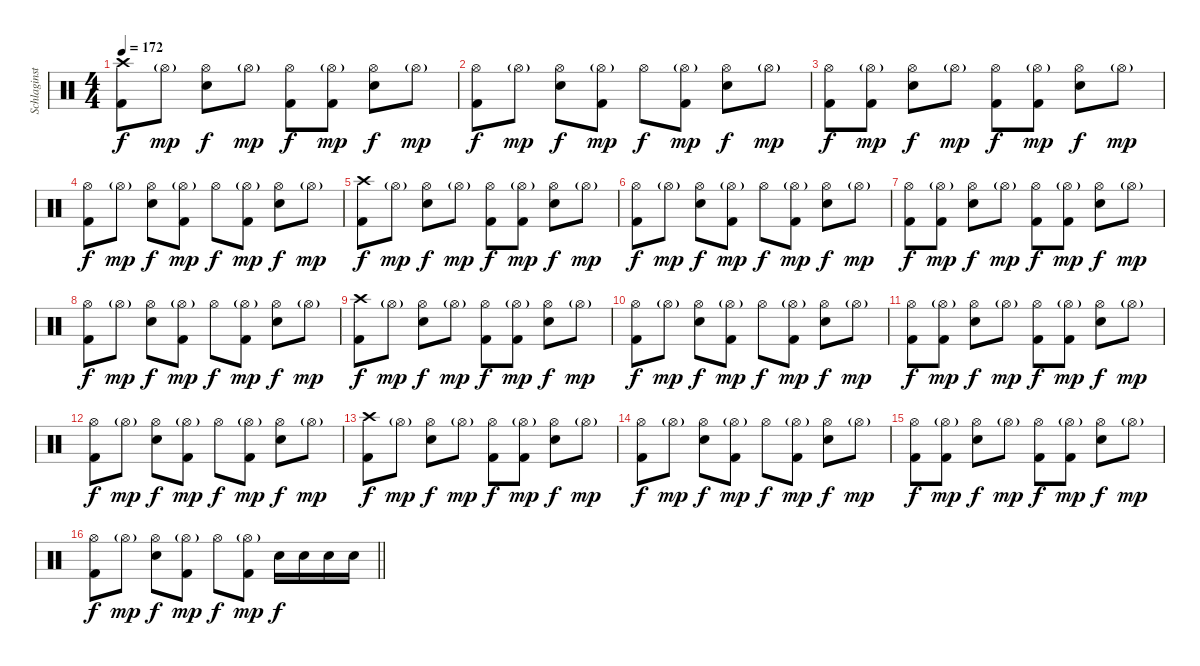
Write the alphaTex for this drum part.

\track ("Schlaginstrumente - Auswahl" "Schlaginst") {instrument percussion}
\staff {score}
\articulation defaults
\ts (4 4)
\tempo 172
\clef neutral
\ks c
("Crash high (hit)" "Kick (hit) 2").8{dy f} "Hi-Hat (open)"{g}.8{dy mp} ("Hi-Hat (open)" "Snare (hit) 2").8{dy f} "Hi-Hat (open)"{g}.8{dy mp} ("Hi-Hat (open)" "Kick (hit) 2").8{dy f} ("Hi-Hat (open)"{g} "Kick (hit) 2").8{dy mp} ("Hi-Hat (open)" "Snare (hit) 2").8{dy f} "Hi-Hat (open)"{g}.8{dy mp} |
("Hi-Hat (open)" "Kick (hit) 2").8{dy f} "Hi-Hat (open)"{g}.8{dy mp} ("Hi-Hat (open)" "Snare (hit) 2").8{dy f} ("Hi-Hat (open)"{g} "Kick (hit) 2").8{dy mp} "Hi-Hat (open)".8{dy f} ("Hi-Hat (open)"{g} "Kick (hit) 2").8{dy mp} ("Hi-Hat (open)" "Snare (hit) 2").8{dy f} "Hi-Hat (open)"{g}.8{dy mp} |
("Hi-Hat (open)" "Kick (hit) 2").8{dy f} ("Hi-Hat (open)"{g} "Kick (hit) 2").8{dy mp} ("Hi-Hat (open)" "Snare (hit) 2").8{dy f} "Hi-Hat (open)"{g}.8{dy mp} ("Hi-Hat (open)" "Kick (hit) 2").8{dy f} ("Hi-Hat (open)"{g} "Kick (hit) 2").8{dy mp} ("Hi-Hat (open)" "Snare (hit) 2").8{dy f} "Hi-Hat (open)"{g}.8{dy mp} |
("Hi-Hat (open)" "Kick (hit) 2").8{dy f} "Hi-Hat (open)"{g}.8{dy mp} ("Hi-Hat (open)" "Snare (hit) 2").8{dy f} ("Hi-Hat (open)"{g} "Kick (hit) 2").8{dy mp} "Hi-Hat (open)".8{dy f} ("Hi-Hat (open)"{g} "Kick (hit) 2").8{dy mp} ("Hi-Hat (open)" "Snare (hit) 2").8{dy f} "Hi-Hat (open)"{g}.8{dy mp} |
("Crash high (hit)" "Kick (hit) 2").8{dy f} "Hi-Hat (open)"{g}.8{dy mp} ("Hi-Hat (open)" "Snare (hit) 2").8{dy f} "Hi-Hat (open)"{g}.8{dy mp} ("Hi-Hat (open)" "Kick (hit) 2").8{dy f} ("Hi-Hat (open)"{g} "Kick (hit) 2").8{dy mp} ("Hi-Hat (open)" "Snare (hit) 2").8{dy f} "Hi-Hat (open)"{g}.8{dy mp} |
("Hi-Hat (open)" "Kick (hit) 2").8{dy f} "Hi-Hat (open)"{g}.8{dy mp} ("Hi-Hat (open)" "Snare (hit) 2").8{dy f} ("Hi-Hat (open)"{g} "Kick (hit) 2").8{dy mp} "Hi-Hat (open)".8{dy f} ("Hi-Hat (open)"{g} "Kick (hit) 2").8{dy mp} ("Hi-Hat (open)" "Snare (hit) 2").8{dy f} "Hi-Hat (open)"{g}.8{dy mp} |
("Hi-Hat (open)" "Kick (hit) 2").8{dy f} ("Hi-Hat (open)"{g} "Kick (hit) 2").8{dy mp} ("Hi-Hat (open)" "Snare (hit) 2").8{dy f} "Hi-Hat (open)"{g}.8{dy mp} ("Hi-Hat (open)" "Kick (hit) 2").8{dy f} ("Hi-Hat (open)"{g} "Kick (hit) 2").8{dy mp} ("Hi-Hat (open)" "Snare (hit) 2").8{dy f} "Hi-Hat (open)"{g}.8{dy mp} |
("Hi-Hat (open)" "Kick (hit) 2").8{dy f} "Hi-Hat (open)"{g}.8{dy mp} ("Hi-Hat (open)" "Snare (hit) 2").8{dy f} ("Hi-Hat (open)"{g} "Kick (hit) 2").8{dy mp} "Hi-Hat (open)".8{dy f} ("Hi-Hat (open)"{g} "Kick (hit) 2").8{dy mp} ("Hi-Hat (open)" "Snare (hit) 2").8{dy f} "Hi-Hat (open)"{g}.8{dy mp} |
("Crash high (hit)" "Kick (hit) 2").8{dy f} "Hi-Hat (open)"{g}.8{dy mp} ("Hi-Hat (open)" "Snare (hit) 2").8{dy f} "Hi-Hat (open)"{g}.8{dy mp} ("Hi-Hat (open)" "Kick (hit) 2").8{dy f} ("Hi-Hat (open)"{g} "Kick (hit) 2").8{dy mp} ("Hi-Hat (open)" "Snare (hit) 2").8{dy f} "Hi-Hat (open)"{g}.8{dy mp} |
("Hi-Hat (open)" "Kick (hit) 2").8{dy f} "Hi-Hat (open)"{g}.8{dy mp} ("Hi-Hat (open)" "Snare (hit) 2").8{dy f} ("Hi-Hat (open)"{g} "Kick (hit) 2").8{dy mp} "Hi-Hat (open)".8{dy f} ("Hi-Hat (open)"{g} "Kick (hit) 2").8{dy mp} ("Hi-Hat (open)" "Snare (hit) 2").8{dy f} "Hi-Hat (open)"{g}.8{dy mp} |
("Hi-Hat (open)" "Kick (hit) 2").8{dy f} ("Hi-Hat (open)"{g} "Kick (hit) 2").8{dy mp} ("Hi-Hat (open)" "Snare (hit) 2").8{dy f} "Hi-Hat (open)"{g}.8{dy mp} ("Hi-Hat (open)" "Kick (hit) 2").8{dy f} ("Hi-Hat (open)"{g} "Kick (hit) 2").8{dy mp} ("Hi-Hat (open)" "Snare (hit) 2").8{dy f} "Hi-Hat (open)"{g}.8{dy mp} |
("Hi-Hat (open)" "Kick (hit) 2").8{dy f} "Hi-Hat (open)"{g}.8{dy mp} ("Hi-Hat (open)" "Snare (hit) 2").8{dy f} ("Hi-Hat (open)"{g} "Kick (hit) 2").8{dy mp} "Hi-Hat (open)".8{dy f} ("Hi-Hat (open)"{g} "Kick (hit) 2").8{dy mp} ("Hi-Hat (open)" "Snare (hit) 2").8{dy f} "Hi-Hat (open)"{g}.8{dy mp} |
("Crash high (hit)" "Kick (hit) 2").8{dy f} "Hi-Hat (open)"{g}.8{dy mp} ("Hi-Hat (open)" "Snare (hit) 2").8{dy f} "Hi-Hat (open)"{g}.8{dy mp} ("Hi-Hat (open)" "Kick (hit) 2").8{dy f} ("Hi-Hat (open)"{g} "Kick (hit) 2").8{dy mp} ("Hi-Hat (open)" "Snare (hit) 2").8{dy f} "Hi-Hat (open)"{g}.8{dy mp} |
("Hi-Hat (open)" "Kick (hit) 2").8{dy f} "Hi-Hat (open)"{g}.8{dy mp} ("Hi-Hat (open)" "Snare (hit) 2").8{dy f} ("Hi-Hat (open)"{g} "Kick (hit) 2").8{dy mp} "Hi-Hat (open)".8{dy f} ("Hi-Hat (open)"{g} "Kick (hit) 2").8{dy mp} ("Hi-Hat (open)" "Snare (hit) 2").8{dy f} "Hi-Hat (open)"{g}.8{dy mp} |
("Hi-Hat (open)" "Kick (hit) 2").8{dy f} ("Hi-Hat (open)"{g} "Kick (hit) 2").8{dy mp} ("Hi-Hat (open)" "Snare (hit) 2").8{dy f} "Hi-Hat (open)"{g}.8{dy mp} ("Hi-Hat (open)" "Kick (hit) 2").8{dy f} ("Hi-Hat (open)"{g} "Kick (hit) 2").8{dy mp} ("Hi-Hat (open)" "Snare (hit) 2").8{dy f} "Hi-Hat (open)"{g}.8{dy mp} |
\barLineRight lightlight
("Hi-Hat (open)" "Kick (hit) 2").8{dy f} "Hi-Hat (open)"{g}.8{dy mp} ("Hi-Hat (open)" "Snare (hit) 2").8{dy f} ("Hi-Hat (open)"{g} "Kick (hit) 2").8{dy mp} "Hi-Hat (open)".8{dy f} ("Hi-Hat (open)"{g} "Kick (hit) 2").8{dy mp} "Snare (hit) 2".16{dy f} "Snare (hit) 2".16 "Snare (hit) 2".16 "Snare (hit) 2".16
